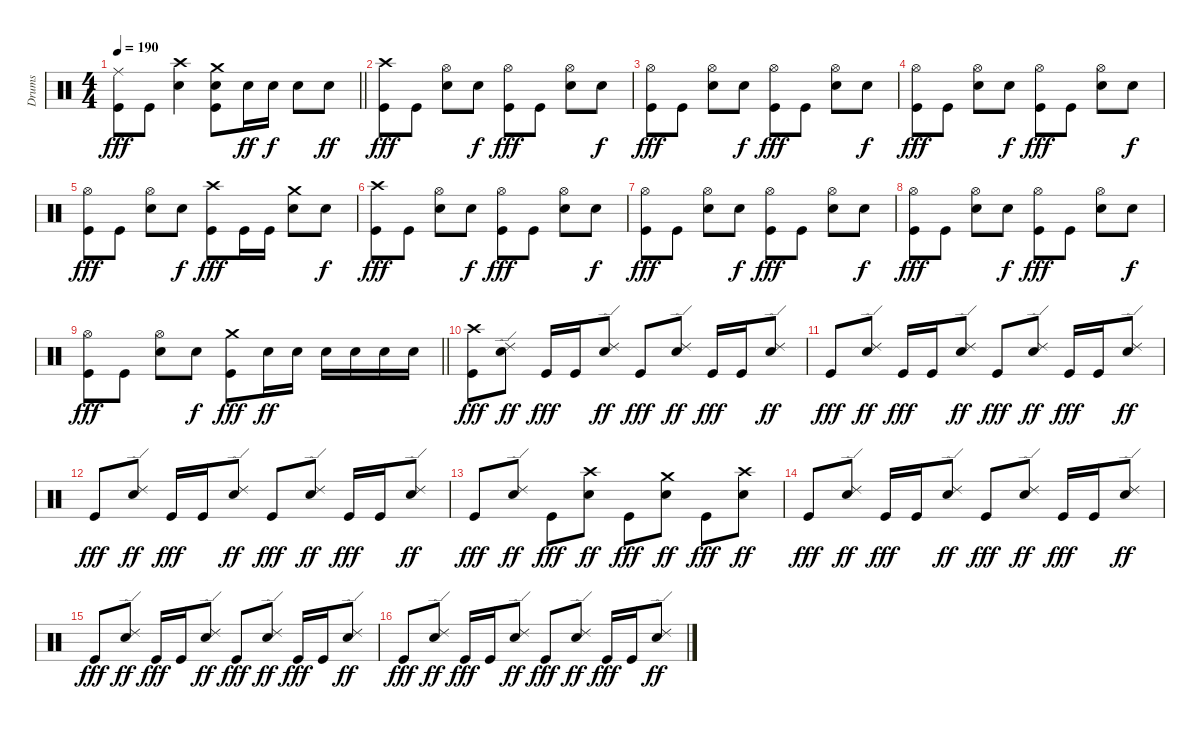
\track ("Drums" "Drums") {instrument percussion}
\staff {score}
\articulation defaults
\ts (4 4)
\tempo 190
\clef neutral
\barLineRight lightlight
\ks c
("Ride (middle)" "Kick (hit)").8{dy fff} "Kick (hit)".8 ("Crash high (hit)" "Snare (hit) 2").4 ("Crash medium (hit)" "Snare (hit) 2" "Kick (hit)").8 "Snare (hit) 2".16{dy ff} "Snare (hit) 2".16{dy f} "Snare (hit) 2".8 "Snare (hit) 2".8{dy ff} |
("Crash high (hit)" "Kick (hit)").8{dy fff} "Kick (hit)".8 ("Hi-Hat (open)" "Snare (hit) 2").8 "Snare (hit) 2".8{dy f} ("Hi-Hat (open)" "Kick (hit)").8{dy fff} "Kick (hit)".8 ("Hi-Hat (open)" "Snare (hit) 2").8 "Snare (hit) 2".8{dy f} |
("Hi-Hat (open)" "Kick (hit)").8{dy fff} "Kick (hit)".8 ("Hi-Hat (open)" "Snare (hit) 2").8 "Snare (hit) 2".8{dy f} ("Hi-Hat (open)" "Kick (hit)").8{dy fff} "Kick (hit)".8 ("Hi-Hat (open)" "Snare (hit) 2").8 "Snare (hit) 2".8{dy f} |
("Hi-Hat (open)" "Kick (hit)").8{dy fff} "Kick (hit)".8 ("Hi-Hat (open)" "Snare (hit) 2").8 "Snare (hit) 2".8{dy f} ("Hi-Hat (open)" "Kick (hit)").8{dy fff} "Kick (hit)".8 ("Hi-Hat (open)" "Snare (hit) 2").8 "Snare (hit) 2".8{dy f} |
("Hi-Hat (open)" "Kick (hit)").8{dy fff} "Kick (hit)".8 ("Hi-Hat (open)" "Snare (hit) 2").8 "Snare (hit) 2".8{dy f} ("Crash high (hit)" "Kick (hit)").8{dy fff} "Kick (hit)".16 "Kick (hit)".16 ("Crash medium (hit)" "Snare (hit) 2").8 "Snare (hit) 2".8{dy f} |
("Crash high (hit)" "Kick (hit)").8{dy fff} "Kick (hit)".8 ("Hi-Hat (open)" "Snare (hit) 2").8 "Snare (hit) 2".8{dy f} ("Hi-Hat (open)" "Kick (hit)").8{dy fff} "Kick (hit)".8 ("Hi-Hat (open)" "Snare (hit) 2").8 "Snare (hit) 2".8{dy f} |
("Hi-Hat (open)" "Kick (hit)").8{dy fff} "Kick (hit)".8 ("Hi-Hat (open)" "Snare (hit) 2").8 "Snare (hit) 2".8{dy f} ("Hi-Hat (open)" "Kick (hit)").8{dy fff} "Kick (hit)".8 ("Hi-Hat (open)" "Snare (hit) 2").8 "Snare (hit) 2".8{dy f} |
("Hi-Hat (open)" "Kick (hit)").8{dy fff} "Kick (hit)".8 ("Hi-Hat (open)" "Snare (hit) 2").8 "Snare (hit) 2".8{dy f} ("Hi-Hat (open)" "Kick (hit)").8{dy fff} "Kick (hit)".8 ("Hi-Hat (open)" "Snare (hit) 2").8 "Snare (hit) 2".8{dy f} |
\barLineRight lightlight
("Hi-Hat (open)" "Kick (hit)").8{dy fff} "Kick (hit)".8 ("Hi-Hat (open)" "Snare (hit) 2").8 "Snare (hit) 2".8{dy f} ("Crash medium (hit)" "Kick (hit)").8{dy fff} "Snare (hit) 2".16{dy ff} "Snare (hit) 2".16 "Snare (hit) 2".16 "Snare (hit) 2".16 "Snare (hit) 2".16 "Snare (hit) 2".16 |
("Crash high (hit)" "Kick (hit)").8{dy fff} ("Ride (edge) 2" "Snare (hit) 2").8{dy ff} "Kick (hit)".16{dy fff} "Kick (hit)".16 ("Ride (edge) 2" "Snare (hit) 2").8{dy ff} "Kick (hit)".8{dy fff} ("Ride (edge) 2" "Snare (hit) 2").8{dy ff} "Kick (hit)".16{dy fff} "Kick (hit)".16 ("Ride (edge) 2" "Snare (hit) 2").8{dy ff} |
"Kick (hit)".8{dy fff} ("Ride (edge) 2" "Snare (hit) 2").8{dy ff} "Kick (hit)".16{dy fff} "Kick (hit)".16 ("Ride (edge) 2" "Snare (hit) 2").8{dy ff} "Kick (hit)".8{dy fff} ("Ride (edge) 2" "Snare (hit) 2").8{dy ff} "Kick (hit)".16{dy fff} "Kick (hit)".16 ("Ride (edge) 2" "Snare (hit) 2").8{dy ff} |
"Kick (hit)".8{dy fff} ("Ride (edge) 2" "Snare (hit) 2").8{dy ff} "Kick (hit)".16{dy fff} "Kick (hit)".16 ("Ride (edge) 2" "Snare (hit) 2").8{dy ff} "Kick (hit)".8{dy fff} ("Ride (edge) 2" "Snare (hit) 2").8{dy ff} "Kick (hit)".16{dy fff} "Kick (hit)".16 ("Ride (edge) 2" "Snare (hit) 2").8{dy ff} |
"Kick (hit)".8{dy fff} ("Ride (edge) 2" "Snare (hit) 2").8{dy ff} "Kick (hit)".8{dy fff} ("Crash high (hit)" "Snare (hit) 2").8{dy ff} "Kick (hit)".8{dy fff} ("Crash medium (hit)" "Snare (hit) 2").8{dy ff} "Kick (hit)".8{dy fff} ("Crash high (hit)" "Snare (hit) 2").8{dy ff} |
"Kick (hit)".8{dy fff} ("Ride (edge) 2" "Snare (hit) 2").8{dy ff} "Kick (hit)".16{dy fff} "Kick (hit)".16 ("Ride (edge) 2" "Snare (hit) 2").8{dy ff} "Kick (hit)".8{dy fff} ("Ride (edge) 2" "Snare (hit) 2").8{dy ff} "Kick (hit)".16{dy fff} "Kick (hit)".16 ("Ride (edge) 2" "Snare (hit) 2").8{dy ff} |
"Kick (hit)".8{dy fff} ("Ride (edge) 2" "Snare (hit) 2").8{dy ff} "Kick (hit)".16{dy fff} "Kick (hit)".16 ("Ride (edge) 2" "Snare (hit) 2").8{dy ff} "Kick (hit)".8{dy fff} ("Ride (edge) 2" "Snare (hit) 2").8{dy ff} "Kick (hit)".16{dy fff} "Kick (hit)".16 ("Ride (edge) 2" "Snare (hit) 2").8{dy ff} |
"Kick (hit)".8{dy fff} ("Ride (edge) 2" "Snare (hit) 2").8{dy ff} "Kick (hit)".16{dy fff} "Kick (hit)".16 ("Ride (edge) 2" "Snare (hit) 2").8{dy ff} "Kick (hit)".8{dy fff} ("Ride (edge) 2" "Snare (hit) 2").8{dy ff} "Kick (hit)".16{dy fff} "Kick (hit)".16 ("Ride (edge) 2" "Snare (hit) 2").8{dy ff}
